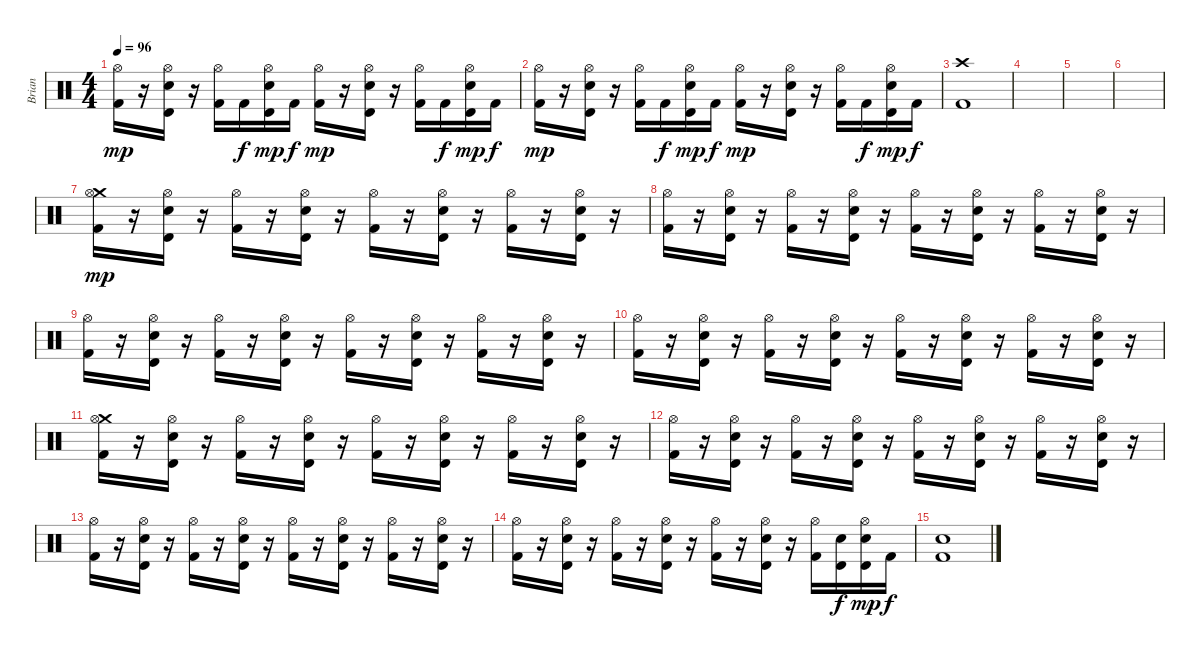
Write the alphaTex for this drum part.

\track ("Brian" "Brian") {instrument percussion}
\staff {score}
\articulation defaults
\ts (4 4)
\tempo 96
\clef neutral
\ks c
("Hi-Hat (open)" "Kick (hit) 2").16{dy mp} r.16 ("Hi-Hat (open)" "Timbale high (hit)" "Electric Snare (hit)").16 r.16 ("Hi-Hat (open)" "Kick (hit) 2").16 "Kick (hit) 2".16{dy f} ("Hi-Hat (open)" "Timbale high (hit)" "Electric Snare (hit)").16{dy mp} "Kick (hit) 2".16{dy f} ("Hi-Hat (open)" "Kick (hit) 2").16{dy mp} r.16 ("Hi-Hat (open)" "Timbale high (hit)" "Electric Snare (hit)").16 r.16 ("Hi-Hat (open)" "Kick (hit) 2").16 "Kick (hit) 2".16{dy f} ("Hi-Hat (open)" "Timbale high (hit)" "Electric Snare (hit)").16{dy mp} "Kick (hit) 2".16{dy f} |
("Hi-Hat (open)" "Kick (hit) 2").16{dy mp} r.16 ("Hi-Hat (open)" "Timbale high (hit)" "Electric Snare (hit)").16 r.16 ("Hi-Hat (open)" "Kick (hit) 2").16 "Kick (hit) 2".16{dy f} ("Hi-Hat (open)" "Timbale high (hit)" "Electric Snare (hit)").16{dy mp} "Kick (hit) 2".16{dy f} ("Hi-Hat (open)" "Kick (hit) 2").16{dy mp} r.16 ("Hi-Hat (open)" "Timbale high (hit)" "Electric Snare (hit)").16 r.16 ("Hi-Hat (open)" "Kick (hit) 2").16 "Kick (hit) 2".16{dy f} ("Hi-Hat (open)" "Timbale high (hit)" "Electric Snare (hit)").16{dy mp} "Kick (hit) 2".16{dy f} |
("Crash high (hit)" "Kick (hit) 2").1 |
|
|
|
("Crash medium (hit)" "Hi-Hat (open)" "Kick (hit) 2").16{dy mp} r.16 ("Hi-Hat (open)" "Timbale high (hit)" "Electric Snare (hit)").16 r.16 ("Hi-Hat (open)" "Kick (hit) 2").16 r.16 ("Hi-Hat (open)" "Timbale high (hit)" "Electric Snare (hit)").16 r.16 ("Hi-Hat (open)" "Kick (hit) 2").16 r.16 ("Hi-Hat (open)" "Timbale high (hit)" "Electric Snare (hit)").16 r.16 ("Hi-Hat (open)" "Kick (hit) 2").16 r.16 ("Hi-Hat (open)" "Timbale high (hit)" "Electric Snare (hit)").16 r.16 |
("Hi-Hat (open)" "Kick (hit) 2").16 r.16 ("Hi-Hat (open)" "Timbale high (hit)" "Electric Snare (hit)").16 r.16 ("Hi-Hat (open)" "Kick (hit) 2").16 r.16 ("Hi-Hat (open)" "Timbale high (hit)" "Electric Snare (hit)").16 r.16 ("Hi-Hat (open)" "Kick (hit) 2").16 r.16 ("Hi-Hat (open)" "Timbale high (hit)" "Electric Snare (hit)").16 r.16 ("Hi-Hat (open)" "Kick (hit) 2").16 r.16 ("Hi-Hat (open)" "Timbale high (hit)" "Electric Snare (hit)").16 r.16 |
("Hi-Hat (open)" "Kick (hit) 2").16 r.16 ("Hi-Hat (open)" "Timbale high (hit)" "Electric Snare (hit)").16 r.16 ("Hi-Hat (open)" "Kick (hit) 2").16 r.16 ("Hi-Hat (open)" "Timbale high (hit)" "Electric Snare (hit)").16 r.16 ("Hi-Hat (open)" "Kick (hit) 2").16 r.16 ("Hi-Hat (open)" "Timbale high (hit)" "Electric Snare (hit)").16 r.16 ("Hi-Hat (open)" "Kick (hit) 2").16 r.16 ("Hi-Hat (open)" "Timbale high (hit)" "Electric Snare (hit)").16 r.16 |
("Hi-Hat (open)" "Kick (hit) 2").16 r.16 ("Hi-Hat (open)" "Timbale high (hit)" "Electric Snare (hit)").16 r.16 ("Hi-Hat (open)" "Kick (hit) 2").16 r.16 ("Hi-Hat (open)" "Timbale high (hit)" "Electric Snare (hit)").16 r.16 ("Hi-Hat (open)" "Kick (hit) 2").16 r.16 ("Hi-Hat (open)" "Timbale high (hit)" "Electric Snare (hit)").16 r.16 ("Hi-Hat (open)" "Kick (hit) 2").16 r.16 ("Hi-Hat (open)" "Timbale high (hit)" "Electric Snare (hit)").16 r.16 |
("Crash medium (hit)" "Hi-Hat (open)" "Kick (hit) 2").16 r.16 ("Hi-Hat (open)" "Timbale high (hit)" "Electric Snare (hit)").16 r.16 ("Hi-Hat (open)" "Kick (hit) 2").16 r.16 ("Hi-Hat (open)" "Timbale high (hit)" "Electric Snare (hit)").16 r.16 ("Hi-Hat (open)" "Kick (hit) 2").16 r.16 ("Hi-Hat (open)" "Timbale high (hit)" "Electric Snare (hit)").16 r.16 ("Hi-Hat (open)" "Kick (hit) 2").16 r.16 ("Hi-Hat (open)" "Timbale high (hit)" "Electric Snare (hit)").16 r.16 |
("Hi-Hat (open)" "Kick (hit) 2").16 r.16 ("Hi-Hat (open)" "Timbale high (hit)" "Electric Snare (hit)").16 r.16 ("Hi-Hat (open)" "Kick (hit) 2").16 r.16 ("Hi-Hat (open)" "Timbale high (hit)" "Electric Snare (hit)").16 r.16 ("Hi-Hat (open)" "Kick (hit) 2").16 r.16 ("Hi-Hat (open)" "Timbale high (hit)" "Electric Snare (hit)").16 r.16 ("Hi-Hat (open)" "Kick (hit) 2").16 r.16 ("Hi-Hat (open)" "Timbale high (hit)" "Electric Snare (hit)").16 r.16 |
("Hi-Hat (open)" "Kick (hit) 2").16 r.16 ("Hi-Hat (open)" "Timbale high (hit)" "Electric Snare (hit)").16 r.16 ("Hi-Hat (open)" "Kick (hit) 2").16 r.16 ("Hi-Hat (open)" "Timbale high (hit)" "Electric Snare (hit)").16 r.16 ("Hi-Hat (open)" "Kick (hit) 2").16 r.16 ("Hi-Hat (open)" "Timbale high (hit)" "Electric Snare (hit)").16 r.16 ("Hi-Hat (open)" "Kick (hit) 2").16 r.16 ("Hi-Hat (open)" "Timbale high (hit)" "Electric Snare (hit)").16 r.16 |
("Hi-Hat (open)" "Kick (hit) 2").16 r.16 ("Hi-Hat (open)" "Timbale high (hit)" "Electric Snare (hit)").16 r.16 ("Hi-Hat (open)" "Kick (hit) 2").16 r.16 ("Hi-Hat (open)" "Timbale high (hit)" "Electric Snare (hit)").16 r.16 ("Hi-Hat (open)" "Kick (hit) 2").16 r.16 ("Hi-Hat (open)" "Timbale high (hit)" "Electric Snare (hit)").16 r.16 ("Hi-Hat (open)" "Kick (hit) 2").16 ("Timbale high (hit)" "Electric Snare (hit)").16{dy f} ("Hi-Hat (open)" "Timbale high (hit)" "Electric Snare (hit)").16{dy mp} "Kick (hit) 2".16{dy f} |
("Electric Snare (hit)" "Kick (hit) 2").1
